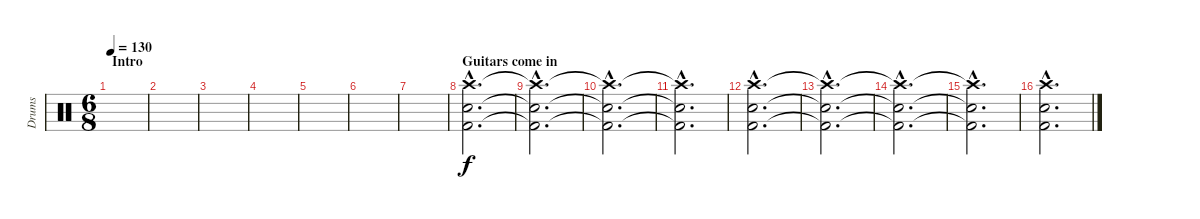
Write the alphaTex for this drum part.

\track ("Drums" "Drums") {instrument percussion}
\staff {score}
\articulation defaults
\ts (6 8)
\section ("" "Intro")
\tempo 130
\clef neutral
\ks c
|
|
|
|
|
|
|
\section ("" "Guitars come in")
("Crash high (hit)"{hac} "Electric Snare (hit)"{hac} "Kick (hit) 2"{hac}).2{d} |
("Crash high (hit)"{hac t} "Electric Snare (hit)"{hac t} "Kick (hit) 2"{hac t}).2{d} |
("Crash high (hit)"{hac t} "Electric Snare (hit)"{hac t} "Kick (hit) 2"{hac t}).2{d} |
("Crash high (hit)"{hac t} "Electric Snare (hit)"{hac t} "Kick (hit) 2"{hac t}).2{d} |
("Crash high (hit)"{hac} "Electric Snare (hit)"{hac} "Kick (hit) 2"{hac}).2{d} |
("Crash high (hit)"{hac t} "Electric Snare (hit)"{hac t} "Kick (hit) 2"{hac t}).2{d} |
("Crash high (hit)"{hac t} "Electric Snare (hit)"{hac t} "Kick (hit) 2"{hac t}).2{d} |
("Crash high (hit)"{hac t} "Electric Snare (hit)"{hac t} "Kick (hit) 2"{hac t}).2{d} |
("Crash high (hit)"{hac} "Electric Snare (hit)"{hac} "Kick (hit) 2"{hac}).2{d}
